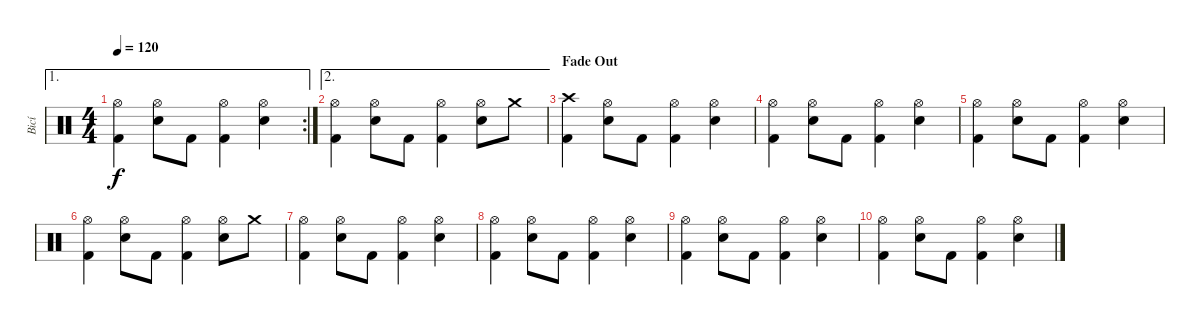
\track ("Bicí" "Bicí") {instrument percussion}
\staff {score}
\articulation defaults
\ae 1
\rc 2
\ts (4 4)
\tempo 120
\clef neutral
\ks c
("Hi-Hat (open)" "Kick (hit) 2").4{dy f} ("Hi-Hat (open)" "Snare (hit) 2").8 "Kick (hit) 2".8 ("Hi-Hat (open)" "Kick (hit) 2").4 ("Hi-Hat (open)" "Snare (hit) 2").4 |
\ae 2
("Hi-Hat (open)" "Kick (hit) 2").4 ("Hi-Hat (open)" "Snare (hit) 2").8 "Kick (hit) 2".8 ("Hi-Hat (open)" "Kick (hit) 2").4 ("Hi-Hat (open)" "Snare (hit) 2").8 "Crash medium (hit)".8{balance 0} |
\section ("" "Fade Out")
("Crash high (hit)" "Kick (hit) 2").4{balance 16} ("Hi-Hat (open)" "Snare (hit) 2").8{balance 8} "Kick (hit) 2".8 ("Hi-Hat (open)" "Kick (hit) 2").4 ("Hi-Hat (open)" "Snare (hit) 2").4 |
("Hi-Hat (open)" "Kick (hit) 2").4 ("Hi-Hat (open)" "Snare (hit) 2").8 "Kick (hit) 2".8 ("Hi-Hat (open)" "Kick (hit) 2").4 ("Hi-Hat (open)" "Snare (hit) 2").4 |
("Hi-Hat (open)" "Kick (hit) 2").4 ("Hi-Hat (open)" "Snare (hit) 2").8 "Kick (hit) 2".8 ("Hi-Hat (open)" "Kick (hit) 2").4 ("Hi-Hat (open)" "Snare (hit) 2").4 |
("Hi-Hat (open)" "Kick (hit) 2").4 ("Hi-Hat (open)" "Snare (hit) 2").8 "Kick (hit) 2".8 ("Hi-Hat (open)" "Kick (hit) 2").4 ("Hi-Hat (open)" "Snare (hit) 2").8 "Crash medium (hit)".8 |
("Hi-Hat (open)" "Kick (hit) 2").4 ("Hi-Hat (open)" "Snare (hit) 2").8 "Kick (hit) 2".8 ("Hi-Hat (open)" "Kick (hit) 2").4 ("Hi-Hat (open)" "Snare (hit) 2").4 |
("Hi-Hat (open)" "Kick (hit) 2").4 ("Hi-Hat (open)" "Snare (hit) 2").8 "Kick (hit) 2".8 ("Hi-Hat (open)" "Kick (hit) 2").4 ("Hi-Hat (open)" "Snare (hit) 2").4 |
("Hi-Hat (open)" "Kick (hit) 2").4 ("Hi-Hat (open)" "Snare (hit) 2").8 "Kick (hit) 2".8 ("Hi-Hat (open)" "Kick (hit) 2").4 ("Hi-Hat (open)" "Snare (hit) 2").4 |
("Hi-Hat (open)" "Kick (hit) 2").4 ("Hi-Hat (open)" "Snare (hit) 2").8 "Kick (hit) 2".8 ("Hi-Hat (open)" "Kick (hit) 2").4 ("Hi-Hat (open)" "Snare (hit) 2").4
